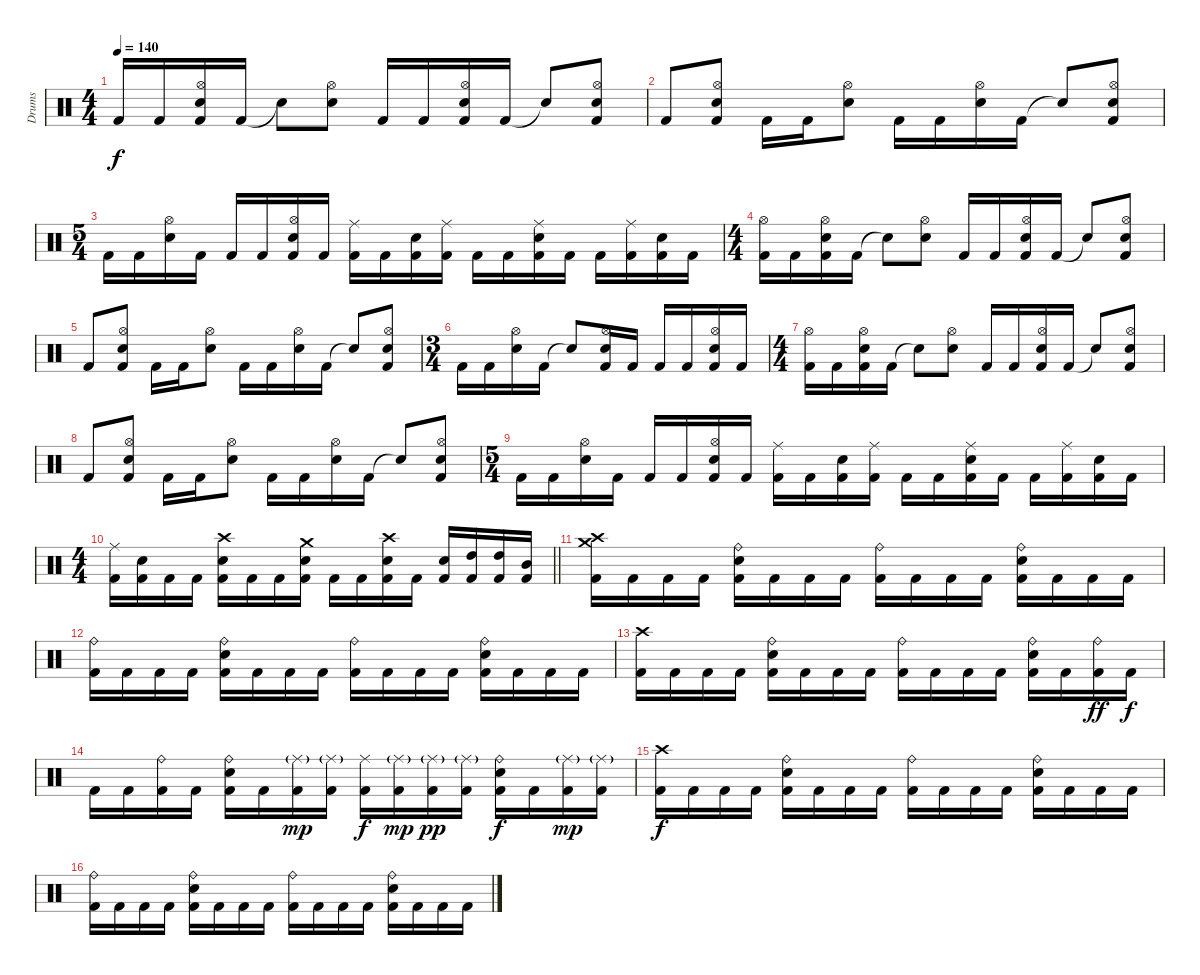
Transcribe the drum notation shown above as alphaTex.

\track ("Drums" "Drums") {instrument percussion}
\staff {score}
\articulation defaults
\ts (4 4)
\tempo 140
\clef neutral
\ks c "Kick (hit) 2".16{dy f} "Kick (hit) 2".16
("Hi-Hat (open)" "Electric Snare (hit)" "Kick (hit) 2").16 "Kick (hit) 2".16 "Snare (hit)"{t}.8 ("Hi-Hat (open)" "Electric Snare (hit)").8 "Kick (hit) 2".16 "Kick (hit) 2".16 ("Hi-Hat (open)" "Electric Snare (hit)" "Kick (hit) 2").16 "Kick (hit) 2".16 "Snare (hit)"{t}.8 ("Hi-Hat (open)" "Electric Snare (hit)" "Kick (hit) 2").8 |
"Kick (hit) 2".8 ("Hi-Hat (open)" "Electric Snare (hit)" "Kick (hit) 2").8 "Kick (hit) 2".16 "Kick (hit) 2".16 ("Hi-Hat (open)" "Electric Snare (hit)").8 "Kick (hit) 2".16 "Kick (hit) 2".16 ("Hi-Hat (open)" "Electric Snare (hit)").16 "Kick (hit) 2".16 "Snare (hit)"{t}.8 ("Hi-Hat (open)" "Electric Snare (hit)" "Kick (hit) 2").8 |
\ts (5 4)
"Kick (hit) 2".16 "Kick (hit) 2".16 ("Hi-Hat (open)" "Electric Snare (hit)").16 "Kick (hit) 2".16 "Kick (hit) 2".16 "Kick (hit) 2".16 ("Hi-Hat (open)" "Electric Snare (hit)" "Kick (hit) 2").16 "Kick (hit) 2".16 ("Ride (middle)" "Kick (hit) 2").16 "Kick (hit) 2".16 ("Electric Snare (hit)" "Kick (hit) 2").16 ("Ride (middle)" "Kick (hit) 2").16 "Kick (hit) 2".16 "Kick (hit) 2".16 ("Ride (middle)" "Electric Snare (hit)" "Kick (hit) 2").16 "Kick (hit) 2".16 "Kick (hit) 2".16 ("Ride (middle)" "Kick (hit) 2").16 ("Electric Snare (hit)" "Kick (hit) 2").16 "Kick (hit) 2".16 |
\ts (4 4)
("Hi-Hat (open)" "Kick (hit) 2").16 "Kick (hit) 2".16 ("Hi-Hat (open)" "Electric Snare (hit)" "Kick (hit) 2").16 "Kick (hit) 2".16 "Snare (hit)"{t}.8 ("Hi-Hat (open)" "Electric Snare (hit)").8 "Kick (hit) 2".16 "Kick (hit) 2".16 ("Hi-Hat (open)" "Electric Snare (hit)" "Kick (hit) 2").16 "Kick (hit) 2".16 "Snare (hit)"{t}.8 ("Hi-Hat (open)" "Electric Snare (hit)" "Kick (hit) 2").8 |
"Kick (hit) 2".8 ("Hi-Hat (open)" "Electric Snare (hit)" "Kick (hit) 2").8 "Kick (hit) 2".16 "Kick (hit) 2".16 ("Hi-Hat (open)" "Electric Snare (hit)").8 "Kick (hit) 2".16 "Kick (hit) 2".16 ("Hi-Hat (open)" "Electric Snare (hit)").16 "Kick (hit) 2".16 "Snare (hit)"{t}.8 ("Hi-Hat (open)" "Electric Snare (hit)" "Kick (hit) 2").8 |
\ts (3 4)
"Kick (hit) 2".16 "Kick (hit) 2".16 ("Hi-Hat (open)" "Electric Snare (hit)").16 "Kick (hit) 2".16 "Snare (hit)"{t}.8 ("Hi-Hat (open)" "Electric Snare (hit)" "Kick (hit) 2").16 "Kick (hit) 2".16 "Kick (hit) 2".16 "Kick (hit) 2".16 ("Hi-Hat (open)" "Electric Snare (hit)" "Kick (hit) 2").16 "Kick (hit) 2".16 |
\ts (4 4)
("Hi-Hat (open)" "Kick (hit) 2").16 "Kick (hit) 2".16 ("Hi-Hat (open)" "Electric Snare (hit)" "Kick (hit) 2").16 "Kick (hit) 2".16 "Snare (hit)"{t}.8 ("Hi-Hat (open)" "Electric Snare (hit)").8 "Kick (hit) 2".16 "Kick (hit) 2".16 ("Hi-Hat (open)" "Electric Snare (hit)" "Kick (hit) 2").16 "Kick (hit) 2".16 "Snare (hit)"{t}.8 ("Hi-Hat (open)" "Electric Snare (hit)" "Kick (hit) 2").8 |
"Kick (hit) 2".8 ("Hi-Hat (open)" "Electric Snare (hit)" "Kick (hit) 2").8 "Kick (hit) 2".16 "Kick (hit) 2".16 ("Hi-Hat (open)" "Electric Snare (hit)").8 "Kick (hit) 2".16 "Kick (hit) 2".16 ("Hi-Hat (open)" "Electric Snare (hit)").16 "Kick (hit) 2".16 "Snare (hit)"{t}.8 ("Hi-Hat (open)" "Electric Snare (hit)" "Kick (hit) 2").8 |
\ts (5 4)
"Kick (hit) 2".16 "Kick (hit) 2".16 ("Hi-Hat (open)" "Electric Snare (hit)").16 "Kick (hit) 2".16 "Kick (hit) 2".16 "Kick (hit) 2".16 ("Hi-Hat (open)" "Electric Snare (hit)" "Kick (hit) 2").16 "Kick (hit) 2".16 ("Ride (middle)" "Kick (hit) 2").16 "Kick (hit) 2".16 ("Electric Snare (hit)" "Kick (hit) 2").16 ("Ride (middle)" "Kick (hit) 2").16 "Kick (hit) 2".16 "Kick (hit) 2".16 ("Ride (middle)" "Electric Snare (hit)" "Kick (hit) 2").16 "Kick (hit) 2".16 "Kick (hit) 2".16 ("Ride (middle)" "Kick (hit) 2").16 ("Electric Snare (hit)" "Kick (hit) 2").16 "Kick (hit) 2".16 |
\ts (4 4)
\barLineRight lightlight
("Ride (middle)" "Kick (hit) 2").16 ("Electric Snare (hit)" "Kick (hit) 2").16 "Kick (hit) 2".16 "Kick (hit) 2".16 ("Crash high (hit)" "Electric Snare (hit)" "Kick (hit) 2").16 "Kick (hit) 2".16 "Kick (hit) 2".16 ("Crash medium (hit)" "Electric Snare (hit)" "Kick (hit) 2").16 "Kick (hit) 2".16 "Kick (hit) 2".16 ("Crash high (hit)" "Electric Snare (hit)" "Kick (hit) 2").16 "Kick (hit) 2".16 ("Electric Snare (hit)" "Kick (hit) 2").16 ("High Tom (hit)" "Kick (hit) 2").16 ("High Tom (hit)" "Kick (hit) 2").16 ("Mid Tom (hit)" "Kick (hit) 2").16 |
("Crash high (hit)" "Crash medium (hit)" "Kick (hit) 2").16 "Kick (hit) 2".16 "Kick (hit) 2".16 "Kick (hit) 2".16 ("Ride (bell)" "Electric Snare (hit)" "Kick (hit) 2").16 "Kick (hit) 2".16 "Kick (hit) 2".16 "Kick (hit) 2".16 ("Ride (bell)" "Kick (hit) 2").16 "Kick (hit) 2".16 "Kick (hit) 2".16 "Kick (hit) 2".16 ("Ride (bell)" "Electric Snare (hit)" "Kick (hit) 2").16 "Kick (hit) 2".16 "Kick (hit) 2".16 "Kick (hit) 2".16 |
("Ride (bell)" "Kick (hit) 2").16 "Kick (hit) 2".16 "Kick (hit) 2".16 "Kick (hit) 2".16 ("Ride (bell)" "Electric Snare (hit)" "Kick (hit) 2").16 "Kick (hit) 2".16 "Kick (hit) 2".16 "Kick (hit) 2".16 ("Ride (bell)" "Kick (hit) 2").16 "Kick (hit) 2".16 "Kick (hit) 2".16 "Kick (hit) 2".16 ("Ride (bell)" "Electric Snare (hit)" "Kick (hit) 2").16 "Kick (hit) 2".16 "Kick (hit) 2".16 "Kick (hit) 2".16 |
("Crash high (hit)" "Kick (hit) 2").16 "Kick (hit) 2".16 "Kick (hit) 2".16 "Kick (hit) 2".16 ("Ride (bell)" "Electric Snare (hit)" "Kick (hit) 2").16 "Kick (hit) 2".16 "Kick (hit) 2".16 "Kick (hit) 2".16 ("Ride (bell)" "Kick (hit) 2").16 "Kick (hit) 2".16 "Kick (hit) 2".16 "Kick (hit) 2".16 ("Ride (bell)" "Electric Snare (hit)" "Kick (hit) 2").16 "Kick (hit) 2".16 ("Ride (bell)" "Kick (hit) 2").16{dy ff} "Kick (hit) 2".16{dy f} |
"Kick (hit) 2".16 "Kick (hit) 2".16 ("Ride (bell)" "Kick (hit) 2").16 "Kick (hit) 2".16 ("Ride (bell)" "Electric Snare (hit)" "Kick (hit) 2").16 "Kick (hit) 2".16 ("Ride (middle)"{g} "Kick (hit) 2").16{dy mp} ("Ride (middle)"{g} "Kick (hit) 2").16 ("Ride (middle)" "Kick (hit) 2").16{dy f} ("Ride (middle)"{g} "Kick (hit) 2").16{dy mp} ("Ride (middle)"{g} "Kick (hit) 2").16{dy pp} ("Ride (middle)"{g} "Kick (hit) 2").16 ("Ride (bell)" "Electric Snare (hit)" "Kick (hit) 2").16{dy f} "Kick (hit) 2".16 ("Ride (middle)"{g} "Kick (hit) 2").16{dy mp} ("Ride (middle)"{g} "Kick (hit) 2").16 |
("Crash high (hit)" "Kick (hit) 2").16{dy f} "Kick (hit) 2".16 "Kick (hit) 2".16 "Kick (hit) 2".16 ("Ride (bell)" "Electric Snare (hit)" "Kick (hit) 2").16 "Kick (hit) 2".16 "Kick (hit) 2".16 "Kick (hit) 2".16 ("Ride (bell)" "Kick (hit) 2").16 "Kick (hit) 2".16 "Kick (hit) 2".16 "Kick (hit) 2".16 ("Ride (bell)" "Electric Snare (hit)" "Kick (hit) 2").16 "Kick (hit) 2".16 "Kick (hit) 2".16 "Kick (hit) 2".16 |
("Ride (bell)" "Kick (hit) 2").16 "Kick (hit) 2".16 "Kick (hit) 2".16 "Kick (hit) 2".16 ("Ride (bell)" "Electric Snare (hit)" "Kick (hit) 2").16 "Kick (hit) 2".16 "Kick (hit) 2".16 "Kick (hit) 2".16 ("Ride (bell)" "Kick (hit) 2").16 "Kick (hit) 2".16 "Kick (hit) 2".16 "Kick (hit) 2".16 ("Ride (bell)" "Electric Snare (hit)" "Kick (hit) 2").16 "Kick (hit) 2".16 "Kick (hit) 2".16 "Kick (hit) 2".16
